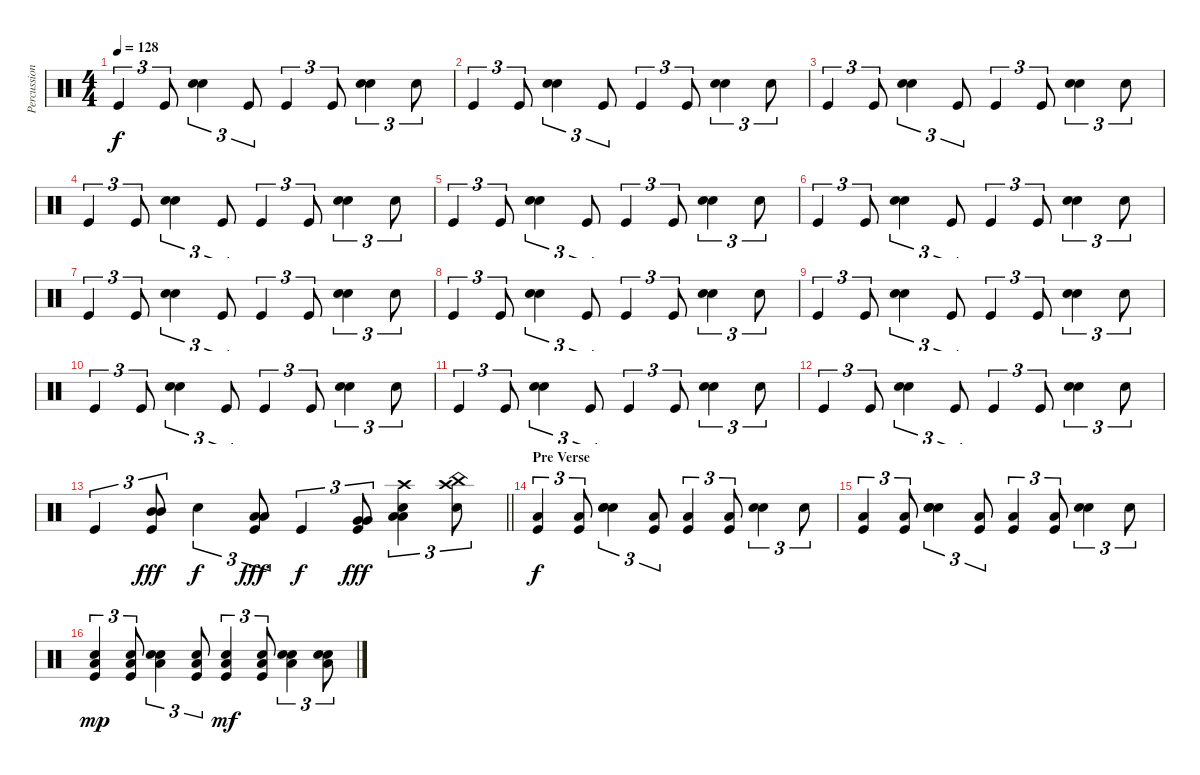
\track ("Percussion" "Percussion") {instrument percussion}
\staff {score}
\articulation defaults
\ts (4 4)
\tempo 128
\clef neutral
\ks c "Kick (hit)".4{tu (3 2) dy f} "Kick (hit)".8{tu (3 2)}
("Hand Clap (hit)" "Electric Snare (hit)").4{tu (3 2)} "Kick (hit)".8{tu (3 2)} "Kick (hit)".4{tu (3 2)} "Kick (hit)".8{tu (3 2)} ("Hand Clap (hit)" "Electric Snare (hit)").4{tu (3 2)} "Hand Clap (hit)".8{tu (3 2)} |
"Kick (hit)".4{tu (3 2)} "Kick (hit)".8{tu (3 2)} ("Hand Clap (hit)" "Electric Snare (hit)").4{tu (3 2)} "Kick (hit)".8{tu (3 2)} "Kick (hit)".4{tu (3 2)} "Kick (hit)".8{tu (3 2)} ("Hand Clap (hit)" "Electric Snare (hit)").4{tu (3 2)} "Hand Clap (hit)".8{tu (3 2)} |
"Kick (hit)".4{tu (3 2)} "Kick (hit)".8{tu (3 2)} ("Hand Clap (hit)" "Electric Snare (hit)").4{tu (3 2)} "Kick (hit)".8{tu (3 2)} "Kick (hit)".4{tu (3 2)} "Kick (hit)".8{tu (3 2)} ("Hand Clap (hit)" "Electric Snare (hit)").4{tu (3 2)} "Hand Clap (hit)".8{tu (3 2)} |
"Kick (hit)".4{tu (3 2)} "Kick (hit)".8{tu (3 2)} ("Hand Clap (hit)" "Electric Snare (hit)").4{tu (3 2)} "Kick (hit)".8{tu (3 2)} "Kick (hit)".4{tu (3 2)} "Kick (hit)".8{tu (3 2)} ("Hand Clap (hit)" "Electric Snare (hit)").4{tu (3 2)} "Hand Clap (hit)".8{tu (3 2)} |
"Kick (hit)".4{tu (3 2)} "Kick (hit)".8{tu (3 2)} ("Hand Clap (hit)" "Electric Snare (hit)").4{tu (3 2)} "Kick (hit)".8{tu (3 2)} "Kick (hit)".4{tu (3 2)} "Kick (hit)".8{tu (3 2)} ("Hand Clap (hit)" "Electric Snare (hit)").4{tu (3 2)} "Hand Clap (hit)".8{tu (3 2)} |
"Kick (hit)".4{tu (3 2)} "Kick (hit)".8{tu (3 2)} ("Hand Clap (hit)" "Electric Snare (hit)").4{tu (3 2)} "Kick (hit)".8{tu (3 2)} "Kick (hit)".4{tu (3 2)} "Kick (hit)".8{tu (3 2)} ("Hand Clap (hit)" "Electric Snare (hit)").4{tu (3 2)} "Hand Clap (hit)".8{tu (3 2)} |
"Kick (hit)".4{tu (3 2)} "Kick (hit)".8{tu (3 2)} ("Hand Clap (hit)" "Electric Snare (hit)").4{tu (3 2)} "Kick (hit)".8{tu (3 2)} "Kick (hit)".4{tu (3 2)} "Kick (hit)".8{tu (3 2)} ("Hand Clap (hit)" "Electric Snare (hit)").4{tu (3 2)} "Hand Clap (hit)".8{tu (3 2)} |
"Kick (hit)".4{tu (3 2)} "Kick (hit)".8{tu (3 2)} ("Hand Clap (hit)" "Electric Snare (hit)").4{tu (3 2)} "Kick (hit)".8{tu (3 2)} "Kick (hit)".4{tu (3 2)} "Kick (hit)".8{tu (3 2)} ("Hand Clap (hit)" "Electric Snare (hit)").4{tu (3 2)} "Hand Clap (hit)".8{tu (3 2)} |
"Kick (hit)".4{tu (3 2)} "Kick (hit)".8{tu (3 2)} ("Hand Clap (hit)" "Electric Snare (hit)").4{tu (3 2)} "Kick (hit)".8{tu (3 2)} "Kick (hit)".4{tu (3 2)} "Kick (hit)".8{tu (3 2)} ("Hand Clap (hit)" "Electric Snare (hit)").4{tu (3 2)} "Hand Clap (hit)".8{tu (3 2)} |
"Kick (hit)".4{tu (3 2)} "Kick (hit)".8{tu (3 2)} ("Hand Clap (hit)" "Electric Snare (hit)").4{tu (3 2)} "Kick (hit)".8{tu (3 2)} "Kick (hit)".4{tu (3 2)} "Kick (hit)".8{tu (3 2)} ("Hand Clap (hit)" "Electric Snare (hit)").4{tu (3 2)} "Hand Clap (hit)".8{tu (3 2)} |
"Kick (hit)".4{tu (3 2)} "Kick (hit)".8{tu (3 2)} ("Hand Clap (hit)" "Electric Snare (hit)").4{tu (3 2)} "Kick (hit)".8{tu (3 2)} "Kick (hit)".4{tu (3 2)} "Kick (hit)".8{tu (3 2)} ("Hand Clap (hit)" "Electric Snare (hit)").4{tu (3 2)} "Hand Clap (hit)".8{tu (3 2)} |
"Kick (hit)".4{tu (3 2)} "Kick (hit)".8{tu (3 2)} ("Hand Clap (hit)" "Electric Snare (hit)").4{tu (3 2)} "Kick (hit)".8{tu (3 2)} "Kick (hit)".4{tu (3 2)} "Kick (hit)".8{tu (3 2)} ("Hand Clap (hit)" "Electric Snare (hit)").4{tu (3 2)} "Hand Clap (hit)".8{tu (3 2)} |
\barLineRight lightlight "Kick (hit)".4{tu (3 2)}
("Mid Tom (hit)" "Mid Tom (hit)" "Kick (hit)").8{tu (3 2) dy fff} "Hand Clap (hit)".4{tu (3 2) dy f} ("Low Tom (hit)" "Low Tom (hit)" "Kick (hit)").8{tu (3 2) dy fff} "Kick (hit)".4{tu (3 2) dy f} ("Very Low Tom (hit)" "Very Low Tom (hit)" "Kick (hit)").8{tu (3 2) dy fff} ("Crash high (hit)" "Hand Clap (hit)" "Low Floor Tom (hit)" "Low Floor Tom (hit)").4{tu (3 2)} ("Crash high (hit)" "Hand Clap (hit)" "China (hit)").8{tu (3 2)} |
\section ("" "Pre Verse")
("Low Floor Tom (hit)" "Kick (hit)").4{tu (3 2) dy f} ("Low Floor Tom (hit)" "Kick (hit)").8{tu (3 2)} ("Hand Clap (hit)" "Electric Snare (hit)" "Snare (hit) 2").4{tu (3 2)} ("Low Floor Tom (hit)" "Kick (hit)").8{tu (3 2)} ("Low Floor Tom (hit)" "Kick (hit)").4{tu (3 2)} ("Low Floor Tom (hit)" "Kick (hit)").8{tu (3 2)} ("Hand Clap (hit)" "Electric Snare (hit)").4{tu (3 2)} "Hand Clap (hit)".8{tu (3 2)} |
("Low Floor Tom (hit)" "Kick (hit)").4{tu (3 2)} ("Low Floor Tom (hit)" "Kick (hit)").8{tu (3 2)} ("Hand Clap (hit)" "Electric Snare (hit)" "Snare (hit) 2").4{tu (3 2)} ("Low Floor Tom (hit)" "Kick (hit)").8{tu (3 2)} ("Low Floor Tom (hit)" "Kick (hit)").4{tu (3 2)} ("Low Floor Tom (hit)" "Kick (hit)").8{tu (3 2)} ("Hand Clap (hit)" "Electric Snare (hit)").4{tu (3 2)} "Hand Clap (hit)".8{tu (3 2)} |
("Electric Snare (hit)" "Low Floor Tom (hit)" "Kick (hit)").4{tu (3 2) dy mp} ("Electric Snare (hit)" "Low Floor Tom (hit)" "Kick (hit)").8{tu (3 2)} ("Hand Clap (hit)" "Electric Snare (hit)" "Low Floor Tom (hit)").4{tu (3 2)} ("Electric Snare (hit)" "Low Floor Tom (hit)" "Kick (hit)").8{tu (3 2)} ("Electric Snare (hit)" "Low Floor Tom (hit)" "Kick (hit)").4{tu (3 2) dy mf} ("Electric Snare (hit)" "Low Floor Tom (hit)" "Kick (hit)").8{tu (3 2)} ("Hand Clap (hit)" "Electric Snare (hit)" "Low Floor Tom (hit)").4{tu (3 2)} ("Hand Clap (hit)" "Electric Snare (hit)" "Low Floor Tom (hit)").8{tu (3 2)}
